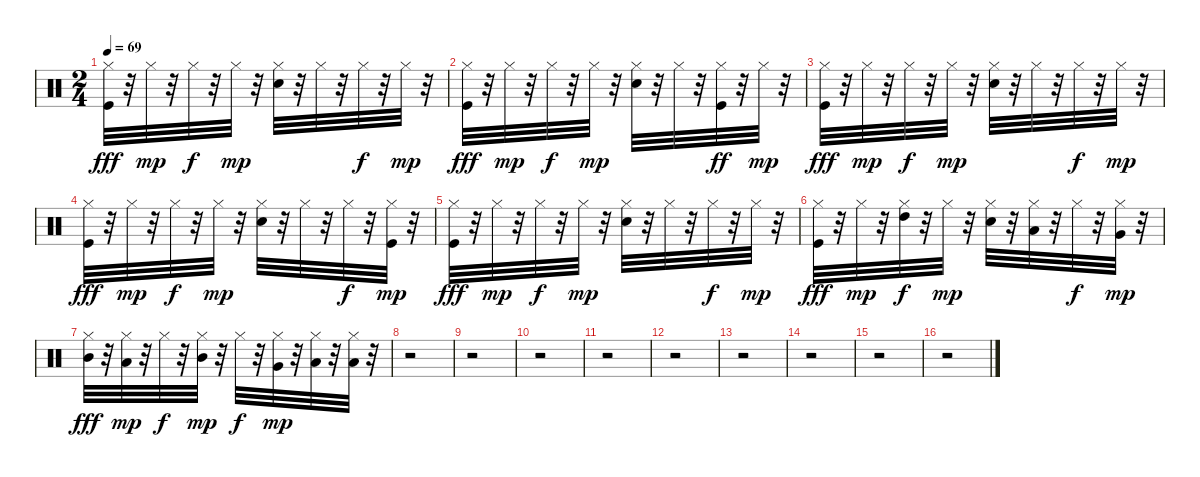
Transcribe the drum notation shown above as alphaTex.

\track "" {instrument percussion}
\staff {score}
\articulation defaults
\ts (2 4)
\tempo 69
\clef neutral
\ks c
("Hi-Hat (closed)" "Kick (hit)").32{dy fff} r.32 "Hi-Hat (closed)".32{dy mp} r.32 "Hi-Hat (closed)".32{dy f} r.32 "Hi-Hat (closed)".32{dy mp} r.32 ("Metronome (bell)" "Hi-Hat (closed)").32 r.32 "Hi-Hat (closed)".32 r.32 "Hi-Hat (closed)".32{dy f} r.32 "Hi-Hat (closed)".32{dy mp} r.32 |
("Kick (hit)" "Hi-Hat (closed)").32{dy fff} r.32 "Hi-Hat (closed)".32{dy mp} r.32 "Hi-Hat (closed)".32{dy f} r.32 "Hi-Hat (closed)".32{dy mp} r.32 ("Metronome (bell)" "Hi-Hat (closed)").32 r.32 "Hi-Hat (closed)".32 r.32 ("Hi-Hat (closed)" "Kick (hit)").32{dy ff} r.32 "Hi-Hat (closed)".32{dy mp} r.32 |
("Hi-Hat (closed)" "Kick (hit)").32{dy fff} r.32 "Hi-Hat (closed)".32{dy mp} r.32 "Hi-Hat (closed)".32{dy f} r.32 "Hi-Hat (closed)".32{dy mp} r.32 ("Metronome (bell)" "Hi-Hat (closed)").32 r.32 "Hi-Hat (closed)".32 r.32 "Hi-Hat (closed)".32{dy f} r.32 "Hi-Hat (closed)".32{dy mp} r.32 |
("Kick (hit)" "Hi-Hat (closed)").32{dy fff} r.32 "Hi-Hat (closed)".32{dy mp} r.32 "Hi-Hat (closed)".32{dy f} r.32 "Hi-Hat (closed)".32{dy mp} r.32 ("Metronome (bell)" "Hi-Hat (closed)").32 r.32 "Hi-Hat (closed)".32 r.32 "Hi-Hat (closed)".32{dy f} r.32 ("Kick (hit)" "Hi-Hat (closed)").32{dy mp} r.32 |
("Hi-Hat (closed)" "Kick (hit)").32{dy fff} r.32 "Hi-Hat (closed)".32{dy mp} r.32 "Hi-Hat (closed)".32{dy f} r.32 "Hi-Hat (closed)".32{dy mp} r.32 ("Metronome (bell)" "Hi-Hat (closed)").32 r.32 "Hi-Hat (closed)".32 r.32 "Hi-Hat (closed)".32{dy f} r.32 "Hi-Hat (closed)".32{dy mp} r.32 |
("Kick (hit)" "Hi-Hat (closed)").32{dy fff} r.32 "Hi-Hat (closed)".32{dy mp} r.32 ("Hi-Hat (closed)" "High Tom (hit)").32{dy f} r.32 "Hi-Hat (closed)".32{dy mp} r.32 ("Metronome (bell)" "Hi-Hat (closed)").32 r.32 ("Hi-Hat (closed)" "Low Tom (hit)").32 r.32 "Hi-Hat (closed)".32{dy f} r.32 ("Hi-Hat (closed)" "Very Low Tom (hit)").32{dy mp} r.32 |
("Hi-Hat (closed)" "Mid Tom (hit)").32{dy fff} r.32 ("Hi-Hat (closed)" "Low Tom (hit)").32{dy mp} r.32 "Hi-Hat (closed)".32{dy f} r.32 ("Hi-Hat (closed)" "Mid Tom (hit)").32{dy mp} r.32 "Hi-Hat (closed)".32{dy f} r.32 ("Very Low Tom (hit)" "Hi-Hat (closed)").32{dy mp} r.32 ("Low Floor Tom (hit)" "Hi-Hat (closed)").32 r.32 ("Low Floor Tom (hit)" "Hi-Hat (closed)").32 r.32 |
r.2 |
r.2 |
r.2 |
r.2 |
r.2 |
r.2 |
r.2 |
r.2 |
r.2
